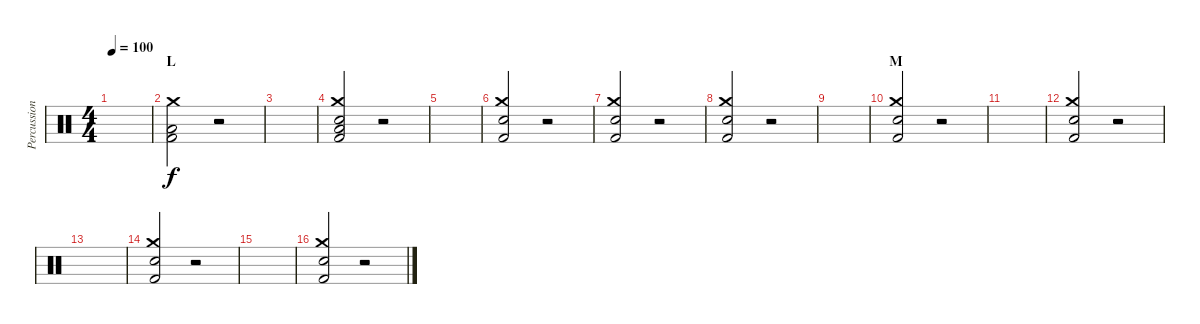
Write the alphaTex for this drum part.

\track ("Percussion" "Percussion") {instrument percussion}
\staff {score}
\articulation defaults
\ts (4 4)
\tempo 100
\clef neutral
\ks c
|
\section ("" "L")
("Kick (hit) 2" "Low Floor Tom (hit)" "Crash medium (hit)").2 r.2 |
|
("Kick (hit) 2" "Electric Snare (hit)" "Low Floor Tom (hit)" "Crash medium (hit)").2 r.2 |
|
("Kick (hit) 2" "Electric Snare (hit)" "Crash medium (hit)").2 r.2 |
("Kick (hit) 2" "Electric Snare (hit)" "Crash medium (hit)").2 r.2 |
("Kick (hit) 2" "Electric Snare (hit)" "Crash medium (hit)").2 r.2 |
|
\section ("" "M")
("Kick (hit) 2" "Electric Snare (hit)" "Crash medium (hit)").2 r.2 |
|
("Kick (hit) 2" "Electric Snare (hit)" "Crash medium (hit)").2 r.2 |
|
("Kick (hit) 2" "Electric Snare (hit)" "Crash medium (hit)").2 r.2 |
|
("Kick (hit) 2" "Electric Snare (hit)" "Crash medium (hit)").2 r.2
